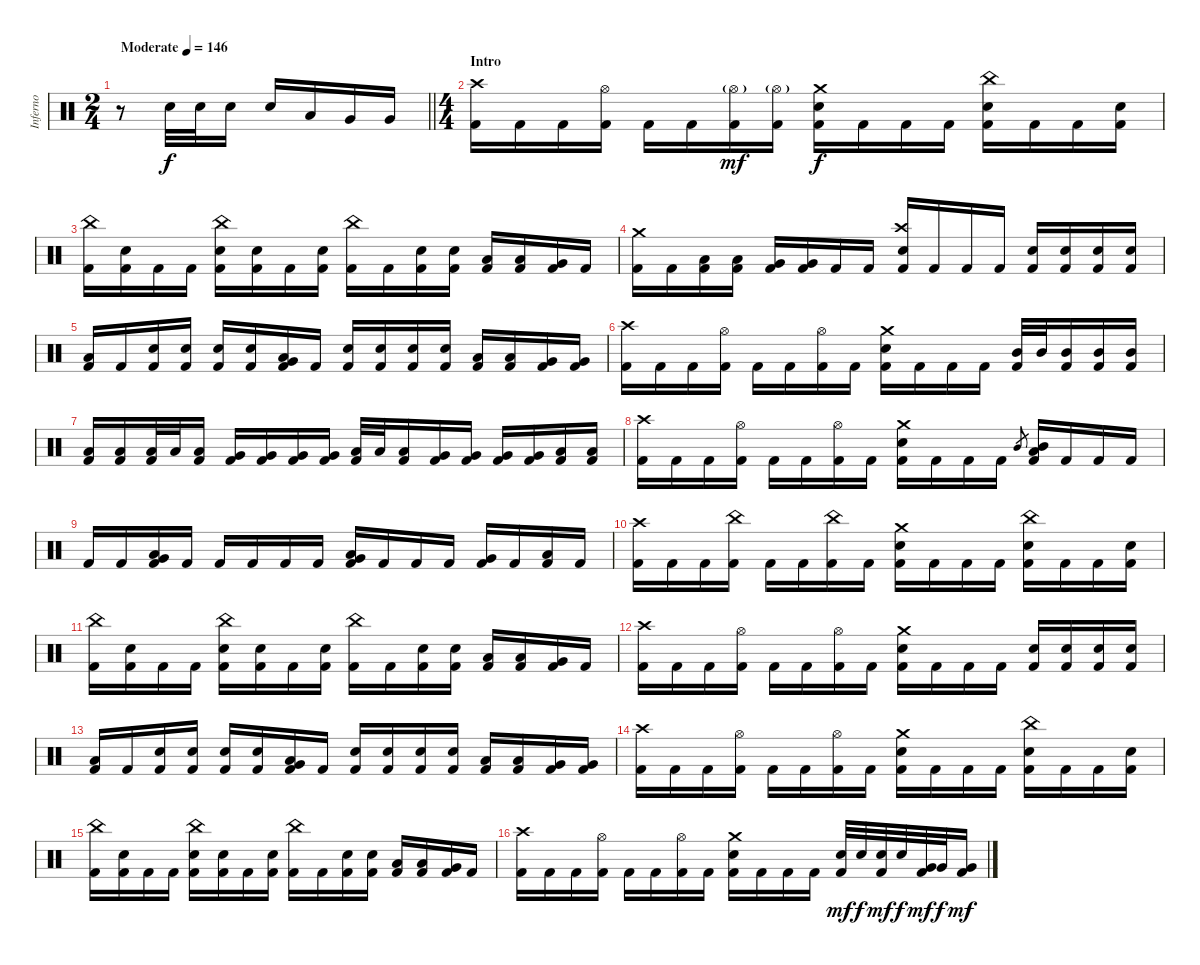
\track ("Inferno" "Inferno") {instrument percussion}
\staff {score}
\articulation defaults
\ts (2 4)
\tempo (146 "Moderate")
\clef neutral
\barLineRight lightlight
\ks c
r.8{dy f} "Snare (hit) 2".32 "Snare (hit) 2".32 "Snare (hit) 2".16 "Snare (hit) 2".16 "Low Tom (hit)".16 "Very Low Tom (hit)".16 "Very Low Tom (hit)".16 |
\ts (4 4)
\section ("" "Intro")
("Crash high (hit)" "Kick (hit) 2").16 "Kick (hit) 2".16 "Kick (hit) 2".16 ("Hi-Hat (open)" "Kick (hit) 2").16 "Kick (hit) 2".16 "Kick (hit) 2".16 ("Hi-Hat (open)"{g} "Kick (hit) 2").16{dy mf} ("Hi-Hat (open)"{g} "Kick (hit) 2").16 ("Crash medium (hit)" "Snare (hit) 2" "Kick (hit) 2").16{dy f} "Kick (hit) 2".16 "Kick (hit) 2".16 "Kick (hit) 2".16 ("China (hit)" "Snare (hit) 2" "Kick (hit) 2").16 "Kick (hit) 2".16 "Kick (hit) 2".16 ("Snare (hit) 2" "Kick (hit) 2").16 |
("China (hit)" "Kick (hit) 2").16 ("Snare (hit) 2" "Kick (hit) 2").16 "Kick (hit) 2".16 "Kick (hit) 2".16 ("China (hit)" "Snare (hit) 2" "Kick (hit) 2").16 ("Snare (hit) 2" "Kick (hit) 2").16 "Kick (hit) 2".16 ("Snare (hit) 2" "Kick (hit) 2").16 ("China (hit)" "Kick (hit) 2").16 "Kick (hit) 2".16 ("Snare (hit) 2" "Kick (hit) 2").16 ("Snare (hit) 2" "Kick (hit) 2").16 ("Low Tom (hit)" "Kick (hit) 2").16 ("Low Tom (hit)" "Kick (hit) 2").16 ("Very Low Tom (hit)" "Kick (hit) 2").16 "Kick (hit) 2".16 |
("Crash medium (hit)" "Kick (hit) 2").16 "Kick (hit) 2".16 ("Low Tom (hit)" "Kick (hit) 2").16 ("Low Tom (hit)" "Kick (hit) 2").16 ("Very Low Tom (hit)" "Kick (hit) 2").16 ("Very Low Tom (hit)" "Kick (hit) 2").16 "Kick (hit) 2".16 "Kick (hit) 2".16 ("Crash high (hit)" "Snare (hit) 2" "Kick (hit) 2").16 "Kick (hit) 2".16 "Kick (hit) 2".16 "Kick (hit) 2".16 ("Snare (hit) 2" "Kick (hit) 2").16 ("Snare (hit) 2" "Kick (hit) 2").16 ("Snare (hit) 2" "Kick (hit) 2").16 ("Snare (hit) 2" "Kick (hit) 2").16 |
("Low Tom (hit)" "Kick (hit) 2").16 "Kick (hit) 2".16 ("Snare (hit) 2" "Kick (hit) 2").16 ("Snare (hit) 2" "Kick (hit) 2").16 ("Snare (hit) 2" "Kick (hit) 2").16 ("Snare (hit) 2" "Kick (hit) 2").16 ("Low Tom (hit)" "Very Low Tom (hit)" "Kick (hit) 2").16 "Kick (hit) 2".16 ("Snare (hit) 2" "Kick (hit) 2").16 ("Snare (hit) 2" "Kick (hit) 2").16 ("Snare (hit) 2" "Kick (hit) 2").16 ("Snare (hit) 2" "Kick (hit) 2").16 ("Low Tom (hit)" "Kick (hit) 2").16 ("Low Tom (hit)" "Kick (hit) 2").16 ("Very Low Tom (hit)" "Kick (hit) 2").16 ("Very Low Tom (hit)" "Kick (hit) 2").16 |
("Crash high (hit)" "Kick (hit) 2").16 "Kick (hit) 2".16 "Kick (hit) 2".16 ("Hi-Hat (open)" "Kick (hit) 2").16 "Kick (hit) 2".16 "Kick (hit) 2".16 ("Hi-Hat (open)" "Kick (hit) 2").16 "Kick (hit) 2".16 ("Crash medium (hit)" "Snare (hit) 2" "Kick (hit) 2").16 "Kick (hit) 2".16 "Kick (hit) 2".16 "Kick (hit) 2".16 ("Mid Tom (hit)" "Kick (hit) 2").32 "Mid Tom (hit)".32 ("Mid Tom (hit)" "Kick (hit) 2").16 ("Mid Tom (hit)" "Kick (hit) 2").16 ("Mid Tom (hit)" "Kick (hit) 2").16 |
("Low Tom (hit)" "Kick (hit) 2").16 ("Low Tom (hit)" "Kick (hit) 2").16 ("Low Tom (hit)" "Kick (hit) 2").32 "Low Tom (hit)".32 ("Low Tom (hit)" "Kick (hit) 2").16 ("Very Low Tom (hit)" "Kick (hit) 2").16 ("Very Low Tom (hit)" "Kick (hit) 2").16 ("Very Low Tom (hit)" "Kick (hit) 2").16 ("Very Low Tom (hit)" "Kick (hit) 2").16 ("Low Tom (hit)" "Kick (hit) 2").32 "Low Tom (hit)".32 ("Low Tom (hit)" "Kick (hit) 2").16 ("Very Low Tom (hit)" "Kick (hit) 2").16 ("Very Low Tom (hit)" "Kick (hit) 2").16 ("Very Low Tom (hit)" "Kick (hit) 2").16 ("Very Low Tom (hit)" "Kick (hit) 2").16 ("Low Floor Tom (hit)" "Kick (hit) 2").16 ("Low Floor Tom (hit)" "Kick (hit) 2").16 |
("Crash high (hit)" "Kick (hit) 2").16 "Kick (hit) 2".16 "Kick (hit) 2".16 ("Hi-Hat (open)" "Kick (hit) 2").16 "Kick (hit) 2".16 "Kick (hit) 2".16 ("Hi-Hat (open)" "Kick (hit) 2").16 "Kick (hit) 2".16 ("Crash medium (hit)" "Snare (hit) 2" "Kick (hit) 2").16 "Kick (hit) 2".16 "Kick (hit) 2".16 "Kick (hit) 2".16 "Mid Tom (hit)".8{gr} ("Mid Tom (hit)" "Low Tom (hit)" "Kick (hit) 2").16 "Kick (hit) 2".16 "Kick (hit) 2".16 "Kick (hit) 2".16 |
"Kick (hit) 2".16 "Kick (hit) 2".16 ("Low Tom (hit)" "Very Low Tom (hit)" "Kick (hit) 2").16 "Kick (hit) 2".16 "Kick (hit) 2".16 "Kick (hit) 2".16 "Kick (hit) 2".16 "Kick (hit) 2".16 ("Very Low Tom (hit)" "Low Floor Tom (hit)" "Kick (hit) 2").16 "Kick (hit) 2".16 "Kick (hit) 2".16 "Kick (hit) 2".16 ("Very Low Tom (hit)" "Kick (hit) 2").16 "Kick (hit) 2".16 ("Low Floor Tom (hit)" "Kick (hit) 2").16 "Kick (hit) 2".16 |
("Crash high (hit)" "Kick (hit) 2").16 "Kick (hit) 2".16 "Kick (hit) 2".16 ("China (hit)" "Kick (hit) 2").16 "Kick (hit) 2".16 "Kick (hit) 2".16 ("China (hit)" "Kick (hit) 2").16 "Kick (hit) 2".16 ("Crash medium (hit)" "Snare (hit) 2" "Kick (hit) 2").16 "Kick (hit) 2".16 "Kick (hit) 2".16 "Kick (hit) 2".16 ("China (hit)" "Snare (hit) 2" "Kick (hit) 2").16 "Kick (hit) 2".16 "Kick (hit) 2".16 ("Snare (hit) 2" "Kick (hit) 2").16 |
("China (hit)" "Kick (hit) 2").16 ("Snare (hit) 2" "Kick (hit) 2").16 "Kick (hit) 2".16 "Kick (hit) 2".16 ("China (hit)" "Snare (hit) 2" "Kick (hit) 2").16 ("Snare (hit) 2" "Kick (hit) 2").16 "Kick (hit) 2".16 ("Snare (hit) 2" "Kick (hit) 2").16 ("China (hit)" "Kick (hit) 2").16 "Kick (hit) 2".16 ("Snare (hit) 2" "Kick (hit) 2").16 ("Snare (hit) 2" "Kick (hit) 2").16 ("Low Tom (hit)" "Kick (hit) 2").16 ("Low Tom (hit)" "Kick (hit) 2").16 ("Very Low Tom (hit)" "Kick (hit) 2").16 "Kick (hit) 2".16 |
("Crash high (hit)" "Kick (hit) 2").16 "Kick (hit) 2".16 "Kick (hit) 2".16 ("Hi-Hat (open)" "Kick (hit) 2").16 "Kick (hit) 2".16 "Kick (hit) 2".16 ("Hi-Hat (open)" "Kick (hit) 2").16 "Kick (hit) 2".16 ("Crash medium (hit)" "Snare (hit) 2" "Kick (hit) 2").16 "Kick (hit) 2".16 "Kick (hit) 2".16 "Kick (hit) 2".16 ("Snare (hit) 2" "Kick (hit) 2").16 ("Snare (hit) 2" "Kick (hit) 2").16 ("Snare (hit) 2" "Kick (hit) 2").16 ("Snare (hit) 2" "Kick (hit) 2").16 |
("Low Tom (hit)" "Kick (hit) 2").16 "Kick (hit) 2".16 ("Snare (hit) 2" "Kick (hit) 2").16 ("Snare (hit) 2" "Kick (hit) 2").16 ("Snare (hit) 2" "Kick (hit) 2").16 ("Snare (hit) 2" "Kick (hit) 2").16 ("Low Tom (hit)" "Very Low Tom (hit)" "Kick (hit) 2").16 "Kick (hit) 2".16 ("Snare (hit) 2" "Kick (hit) 2").16 ("Snare (hit) 2" "Kick (hit) 2").16 ("Snare (hit) 2" "Kick (hit) 2").16 ("Snare (hit) 2" "Kick (hit) 2").16 ("Low Tom (hit)" "Kick (hit) 2").16 ("Low Tom (hit)" "Kick (hit) 2").16 ("Very Low Tom (hit)" "Kick (hit) 2").16 ("Very Low Tom (hit)" "Kick (hit) 2").16 |
("Crash high (hit)" "Kick (hit) 2").16 "Kick (hit) 2".16 "Kick (hit) 2".16 ("Hi-Hat (open)" "Kick (hit) 2").16 "Kick (hit) 2".16 "Kick (hit) 2".16 ("Hi-Hat (open)" "Kick (hit) 2").16 "Kick (hit) 2".16 ("Crash medium (hit)" "Snare (hit) 2" "Kick (hit) 2").16 "Kick (hit) 2".16 "Kick (hit) 2".16 "Kick (hit) 2".16 ("China (hit)" "Snare (hit) 2" "Kick (hit) 2").16 "Kick (hit) 2".16 "Kick (hit) 2".16 ("Snare (hit) 2" "Kick (hit) 2").16 |
("China (hit)" "Kick (hit) 2").16 ("Snare (hit) 2" "Kick (hit) 2").16 "Kick (hit) 2".16 "Kick (hit) 2".16 ("China (hit)" "Snare (hit) 2" "Kick (hit) 2").16 ("Snare (hit) 2" "Kick (hit) 2").16 "Kick (hit) 2".16 ("Snare (hit) 2" "Kick (hit) 2").16 ("China (hit)" "Kick (hit) 2").16 "Kick (hit) 2".16 ("Snare (hit) 2" "Kick (hit) 2").16 ("Snare (hit) 2" "Kick (hit) 2").16 ("Low Tom (hit)" "Kick (hit) 2").16 ("Low Tom (hit)" "Kick (hit) 2").16 ("Very Low Tom (hit)" "Kick (hit) 2").16 "Kick (hit) 2".16 |
("Crash high (hit)" "Kick (hit) 2").16 "Kick (hit) 2".16 "Kick (hit) 2".16 ("Hi-Hat (open)" "Kick (hit) 2").16 "Kick (hit) 2".16 "Kick (hit) 2".16 ("Hi-Hat (open)" "Kick (hit) 2").16 "Kick (hit) 2".16 ("Crash medium (hit)" "Snare (hit) 2" "Kick (hit) 2").16 "Kick (hit) 2".16 "Kick (hit) 2".16 "Kick (hit) 2".16 ("Snare (hit) 2" "Kick (hit) 2").32{dy mf} "Snare (hit) 2".32{dy f} ("Snare (hit) 2" "Kick (hit) 2").32{dy mf} "Snare (hit) 2".32{dy f} ("Very Low Tom (hit)" "Kick (hit) 2").32{dy mf} "Very Low Tom (hit)".32{dy f} ("Very Low Tom (hit)" "Kick (hit) 2").16{dy mf}
